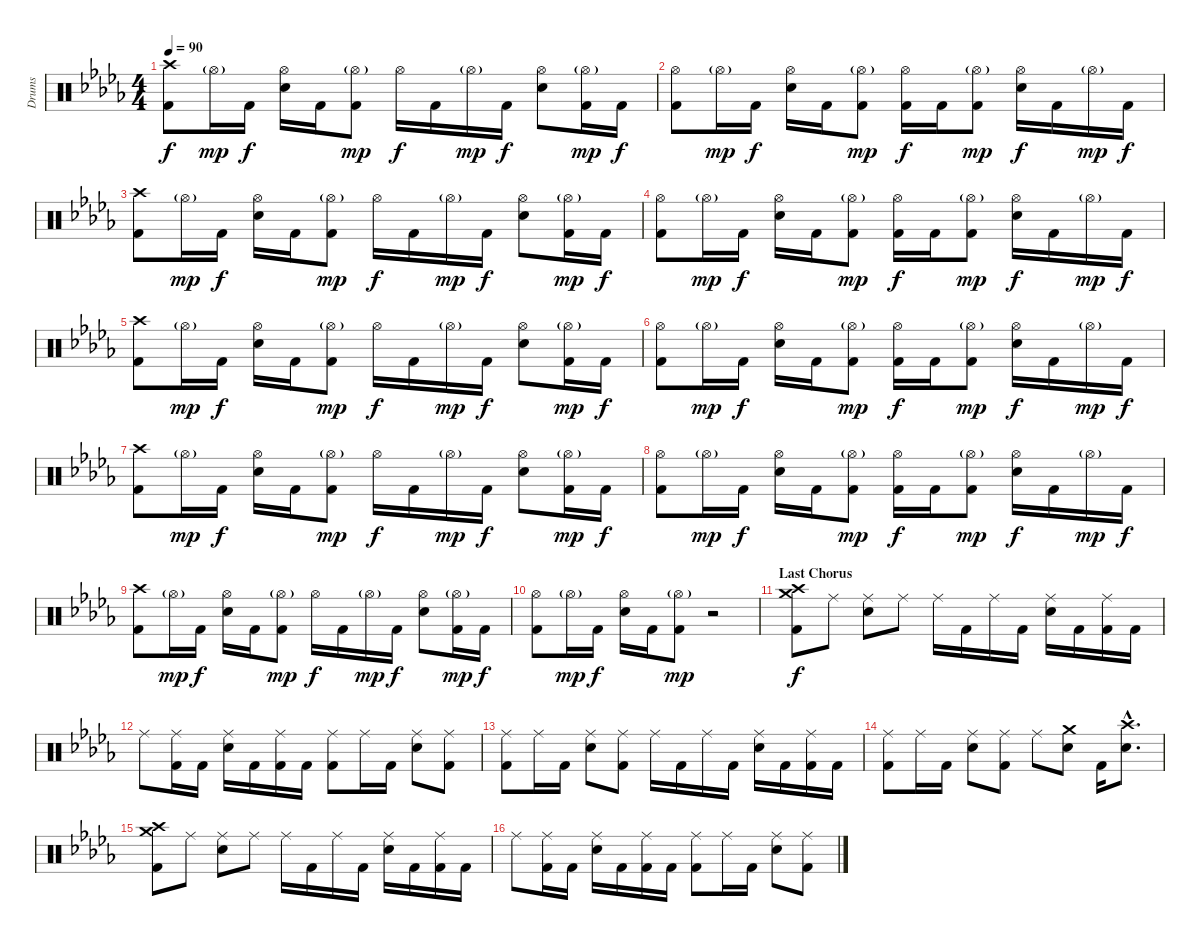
\track ("Drums" "Drums") {instrument percussion}
\staff {score}
\articulation defaults
\ts (4 4)
\tempo 90
\clef neutral
\ks db
("Crash high (hit)" "Kick (hit) 2").8{dy f} "Hi-Hat (open)"{g}.16{dy mp} "Kick (hit) 2".16{dy f} ("Hi-Hat (open)" "Electric Snare (hit)").16 "Kick (hit) 2".16 ("Hi-Hat (open)"{g} "Kick (hit) 2").8{dy mp} "Hi-Hat (open)".16{dy f} "Kick (hit) 2".16 "Hi-Hat (open)"{g}.16{dy mp} "Kick (hit) 2".16{dy f} ("Hi-Hat (open)" "Electric Snare (hit)").8 ("Hi-Hat (open)"{g} "Kick (hit) 2").16{dy mp} "Kick (hit) 2".16{dy f} |
("Hi-Hat (open)" "Kick (hit) 2").8 "Hi-Hat (open)"{g}.16{dy mp} "Kick (hit) 2".16{dy f} ("Hi-Hat (open)" "Electric Snare (hit)").16 "Kick (hit) 2".16 ("Hi-Hat (open)"{g} "Kick (hit) 2").8{dy mp} ("Hi-Hat (open)" "Kick (hit) 2").16{dy f} "Kick (hit) 2".16 ("Hi-Hat (open)"{g} "Kick (hit) 2").8{dy mp} ("Hi-Hat (open)" "Electric Snare (hit)").16{dy f} "Kick (hit) 2".16 "Hi-Hat (open)"{g}.16{dy mp} "Kick (hit) 2".16{dy f} |
("Crash high (hit)" "Kick (hit) 2").8 "Hi-Hat (open)"{g}.16{dy mp} "Kick (hit) 2".16{dy f} ("Hi-Hat (open)" "Electric Snare (hit)").16 "Kick (hit) 2".16 ("Hi-Hat (open)"{g} "Kick (hit) 2").8{dy mp} "Hi-Hat (open)".16{dy f} "Kick (hit) 2".16 "Hi-Hat (open)"{g}.16{dy mp} "Kick (hit) 2".16{dy f} ("Hi-Hat (open)" "Electric Snare (hit)").8 ("Hi-Hat (open)"{g} "Kick (hit) 2").16{dy mp} "Kick (hit) 2".16{dy f} |
("Hi-Hat (open)" "Kick (hit) 2").8 "Hi-Hat (open)"{g}.16{dy mp} "Kick (hit) 2".16{dy f} ("Hi-Hat (open)" "Electric Snare (hit)").16 "Kick (hit) 2".16 ("Hi-Hat (open)"{g} "Kick (hit) 2").8{dy mp} ("Hi-Hat (open)" "Kick (hit) 2").16{dy f} "Kick (hit) 2".16 ("Hi-Hat (open)"{g} "Kick (hit) 2").8{dy mp} ("Hi-Hat (open)" "Electric Snare (hit)").16{dy f} "Kick (hit) 2".16 "Hi-Hat (open)"{g}.16{dy mp} "Kick (hit) 2".16{dy f} |
("Crash high (hit)" "Kick (hit) 2").8 "Hi-Hat (open)"{g}.16{dy mp} "Kick (hit) 2".16{dy f} ("Hi-Hat (open)" "Electric Snare (hit)").16 "Kick (hit) 2".16 ("Hi-Hat (open)"{g} "Kick (hit) 2").8{dy mp} "Hi-Hat (open)".16{dy f} "Kick (hit) 2".16 "Hi-Hat (open)"{g}.16{dy mp} "Kick (hit) 2".16{dy f} ("Hi-Hat (open)" "Electric Snare (hit)").8 ("Hi-Hat (open)"{g} "Kick (hit) 2").16{dy mp} "Kick (hit) 2".16{dy f} |
("Hi-Hat (open)" "Kick (hit) 2").8 "Hi-Hat (open)"{g}.16{dy mp} "Kick (hit) 2".16{dy f} ("Hi-Hat (open)" "Electric Snare (hit)").16 "Kick (hit) 2".16 ("Hi-Hat (open)"{g} "Kick (hit) 2").8{dy mp} ("Hi-Hat (open)" "Kick (hit) 2").16{dy f} "Kick (hit) 2".16 ("Hi-Hat (open)"{g} "Kick (hit) 2").8{dy mp} ("Hi-Hat (open)" "Electric Snare (hit)").16{dy f} "Kick (hit) 2".16 "Hi-Hat (open)"{g}.16{dy mp} "Kick (hit) 2".16{dy f} |
("Crash high (hit)" "Kick (hit) 2").8 "Hi-Hat (open)"{g}.16{dy mp} "Kick (hit) 2".16{dy f} ("Hi-Hat (open)" "Electric Snare (hit)").16 "Kick (hit) 2".16 ("Hi-Hat (open)"{g} "Kick (hit) 2").8{dy mp} "Hi-Hat (open)".16{dy f} "Kick (hit) 2".16 "Hi-Hat (open)"{g}.16{dy mp} "Kick (hit) 2".16{dy f} ("Hi-Hat (open)" "Electric Snare (hit)").8 ("Hi-Hat (open)"{g} "Kick (hit) 2").16{dy mp} "Kick (hit) 2".16{dy f} |
("Hi-Hat (open)" "Kick (hit) 2").8 "Hi-Hat (open)"{g}.16{dy mp} "Kick (hit) 2".16{dy f} ("Hi-Hat (open)" "Electric Snare (hit)").16 "Kick (hit) 2".16 ("Hi-Hat (open)"{g} "Kick (hit) 2").8{dy mp} ("Hi-Hat (open)" "Kick (hit) 2").16{dy f} "Kick (hit) 2".16 ("Hi-Hat (open)"{g} "Kick (hit) 2").8{dy mp} ("Hi-Hat (open)" "Electric Snare (hit)").16{dy f} "Kick (hit) 2".16 "Hi-Hat (open)"{g}.16{dy mp} "Kick (hit) 2".16{dy f} |
("Crash high (hit)" "Kick (hit) 2").8 "Hi-Hat (open)"{g}.16{dy mp} "Kick (hit) 2".16{dy f} ("Hi-Hat (open)" "Electric Snare (hit)").16 "Kick (hit) 2".16 ("Hi-Hat (open)"{g} "Kick (hit) 2").8{dy mp} "Hi-Hat (open)".16{dy f} "Kick (hit) 2".16 "Hi-Hat (open)"{g}.16{dy mp} "Kick (hit) 2".16{dy f} ("Hi-Hat (open)" "Electric Snare (hit)").8 ("Hi-Hat (open)"{g} "Kick (hit) 2").16{dy mp} "Kick (hit) 2".16{dy f} |
("Hi-Hat (open)" "Kick (hit) 2").8 "Hi-Hat (open)"{g}.16{dy mp} "Kick (hit) 2".16{dy f} ("Hi-Hat (open)" "Electric Snare (hit)").16 "Kick (hit) 2".16 ("Hi-Hat (open)"{g} "Kick (hit) 2").8{dy mp} r.2 |
\section ("" "Last Chorus")
("Crash high (hit)" "Crash medium (hit)" "Kick (hit) 2").8{dy f} "Ride (middle)".8 ("Ride (middle)" "Electric Snare (hit)").8 "Ride (middle)".8 "Ride (middle)".16 "Kick (hit) 2".16 "Ride (middle)".16 "Kick (hit) 2".16 ("Ride (middle)" "Electric Snare (hit)").16 "Kick (hit) 2".16 ("Ride (middle)" "Kick (hit) 2").16 "Kick (hit) 2".16 |
"Ride (middle)".8 ("Ride (middle)" "Kick (hit) 2").16 "Kick (hit) 2".16 ("Ride (middle)" "Electric Snare (hit)").16 "Kick (hit) 2".16 ("Ride (middle)" "Kick (hit) 2").16 "Kick (hit) 2".16 ("Ride (middle)" "Kick (hit) 2").8 "Ride (middle)".16 "Kick (hit) 2".16 ("Ride (middle)" "Electric Snare (hit)").8 ("Ride (middle)" "Kick (hit) 2").8 |
("Ride (middle)" "Kick (hit) 2").8 "Ride (middle)".16 "Kick (hit) 2".16 ("Ride (middle)" "Electric Snare (hit)").8 ("Ride (middle)" "Kick (hit) 2").8 "Ride (middle)".16 "Kick (hit) 2".16 "Ride (middle)".16 "Kick (hit) 2".16 ("Ride (middle)" "Electric Snare (hit)").16 "Kick (hit) 2".16 ("Ride (middle)" "Kick (hit) 2").16 "Kick (hit) 2".16 |
("Ride (middle)" "Kick (hit) 2").8 "Ride (middle)".16 "Kick (hit) 2".16 ("Ride (middle)" "Electric Snare (hit)").8 ("Ride (middle)" "Kick (hit) 2").8 "Ride (middle)".8 ("Crash medium (hit)" "Electric Snare (hit)").8 "Kick (hit) 2".16 ("Crash high (hit)"{hac} "Electric Snare (hit)"{hac}).8{d} |
("Crash high (hit)" "Crash medium (hit)" "Kick (hit) 2").8 "Ride (middle)".8 ("Ride (middle)" "Electric Snare (hit)").8 "Ride (middle)".8 "Ride (middle)".16 "Kick (hit) 2".16 "Ride (middle)".16 "Kick (hit) 2".16 ("Ride (middle)" "Electric Snare (hit)").16 "Kick (hit) 2".16 ("Ride (middle)" "Kick (hit) 2").16 "Kick (hit) 2".16 |
"Ride (middle)".8 ("Ride (middle)" "Kick (hit) 2").16 "Kick (hit) 2".16 ("Ride (middle)" "Electric Snare (hit)").16 "Kick (hit) 2".16 ("Ride (middle)" "Kick (hit) 2").16 "Kick (hit) 2".16 ("Ride (middle)" "Kick (hit) 2").8 "Ride (middle)".16 "Kick (hit) 2".16 ("Ride (middle)" "Electric Snare (hit)").8 ("Ride (middle)" "Kick (hit) 2").8
